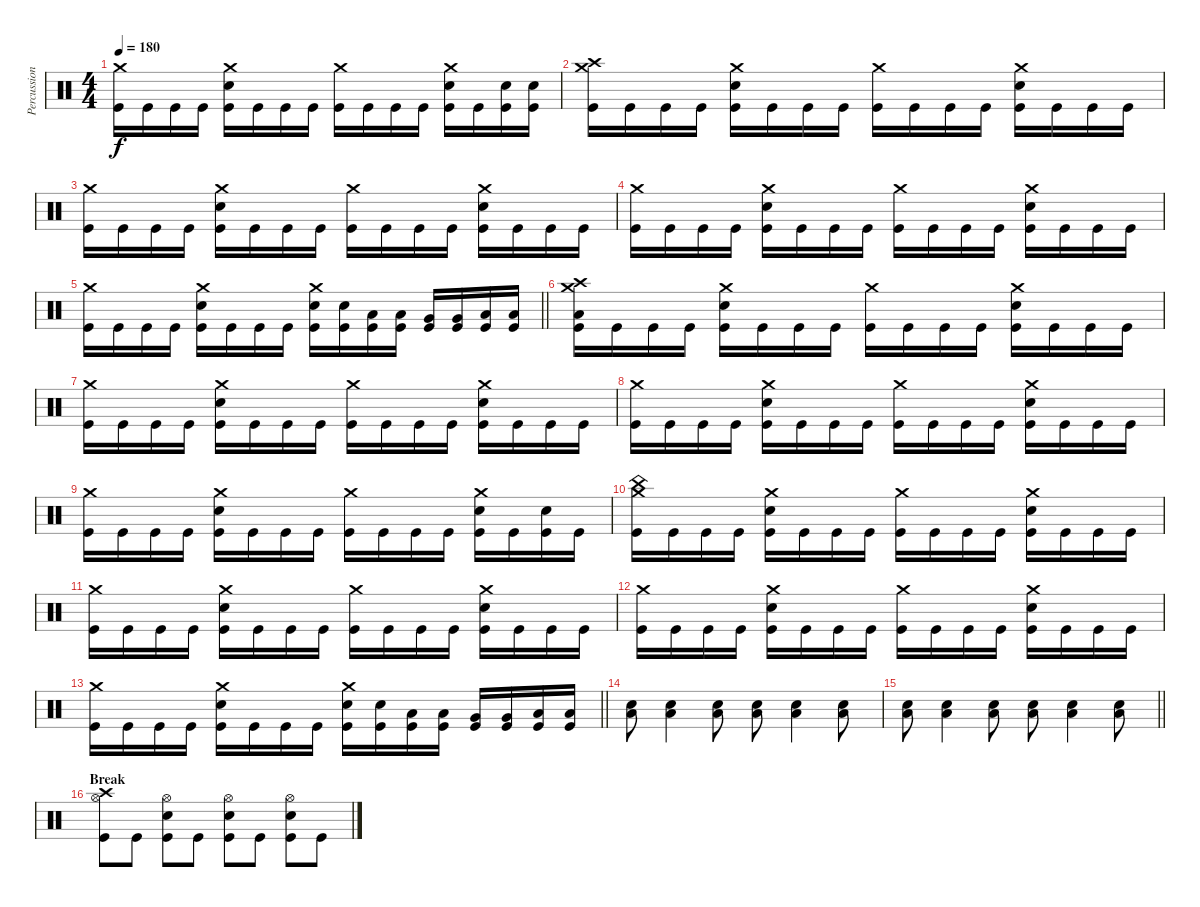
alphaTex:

\track ("Percussion" "Percussion") {instrument percussion}
\staff {score}
\articulation defaults
\ts (4 4)
\tempo 180
\clef neutral
\ks c
("Crash medium (hit)" "Kick (hit)").16{dy f} "Kick (hit)".16 "Kick (hit)".16 "Kick (hit)".16 ("Crash medium (hit)" "Electric Snare (hit)" "Kick (hit)").16 "Kick (hit)".16 "Kick (hit)".16 "Kick (hit)".16 ("Crash medium (hit)" "Kick (hit)").16 "Kick (hit)".16 "Kick (hit)".16 "Kick (hit)".16 ("Crash medium (hit)" "Electric Snare (hit)" "Kick (hit)").16 "Kick (hit)".16 ("Electric Snare (hit)" "Kick (hit)").16 ("Electric Snare (hit)" "Kick (hit)").16 |
("Crash medium (hit)" "Crash high (hit)" "Kick (hit)").16 "Kick (hit)".16 "Kick (hit)".16 "Kick (hit)".16 ("Crash medium (hit)" "Electric Snare (hit)" "Kick (hit)").16 "Kick (hit)".16 "Kick (hit)".16 "Kick (hit)".16 ("Crash medium (hit)" "Kick (hit)").16 "Kick (hit)".16 "Kick (hit)".16 "Kick (hit)".16 ("Crash medium (hit)" "Electric Snare (hit)" "Kick (hit)").16 "Kick (hit)".16 "Kick (hit)".16 "Kick (hit)".16 |
("Crash medium (hit)" "Kick (hit)").16 "Kick (hit)".16 "Kick (hit)".16 "Kick (hit)".16 ("Crash medium (hit)" "Electric Snare (hit)" "Kick (hit)").16 "Kick (hit)".16 "Kick (hit)".16 "Kick (hit)".16 ("Crash medium (hit)" "Kick (hit)").16 "Kick (hit)".16 "Kick (hit)".16 "Kick (hit)".16 ("Crash medium (hit)" "Electric Snare (hit)" "Kick (hit)").16 "Kick (hit)".16 "Kick (hit)".16 "Kick (hit)".16 |
("Crash medium (hit)" "Kick (hit)").16 "Kick (hit)".16 "Kick (hit)".16 "Kick (hit)".16 ("Crash medium (hit)" "Electric Snare (hit)" "Kick (hit)").16 "Kick (hit)".16 "Kick (hit)".16 "Kick (hit)".16 ("Crash medium (hit)" "Kick (hit)").16 "Kick (hit)".16 "Kick (hit)".16 "Kick (hit)".16 ("Crash medium (hit)" "Electric Snare (hit)" "Kick (hit)").16 "Kick (hit)".16 "Kick (hit)".16 "Kick (hit)".16 |
\barLineRight lightlight
("Crash medium (hit)" "Kick (hit)").16 "Kick (hit)".16 "Kick (hit)".16 "Kick (hit)".16 ("Crash medium (hit)" "Electric Snare (hit)" "Kick (hit)").16 "Kick (hit)".16 "Kick (hit)".16 "Kick (hit)".16 ("Crash medium (hit)" "Electric Snare (hit)" "Kick (hit)").16 ("Electric Snare (hit)" "Kick (hit)").16 ("Low Tom (hit)" "Kick (hit)").16 ("Low Tom (hit)" "Kick (hit)").16 ("Very Low Tom (hit)" "Kick (hit)").16 ("Very Low Tom (hit)" "Kick (hit)").16 ("Low Floor Tom (hit)" "Kick (hit)").16 ("Low Floor Tom (hit)" "Kick (hit)").16 |
("Crash medium (hit)" "Crash high (hit)" "Low Floor Tom (hit)" "Kick (hit)").16 "Kick (hit)".16 "Kick (hit)".16 "Kick (hit)".16 ("Crash medium (hit)" "Electric Snare (hit)" "Kick (hit)").16 "Kick (hit)".16 "Kick (hit)".16 "Kick (hit)".16 ("Crash medium (hit)" "Kick (hit)").16 "Kick (hit)".16 "Kick (hit)".16 "Kick (hit)".16 ("Crash medium (hit)" "Electric Snare (hit)" "Kick (hit)").16 "Kick (hit)".16 "Kick (hit)".16 "Kick (hit)".16 |
("Crash medium (hit)" "Kick (hit)").16 "Kick (hit)".16 "Kick (hit)".16 "Kick (hit)".16 ("Crash medium (hit)" "Electric Snare (hit)" "Kick (hit)").16 "Kick (hit)".16 "Kick (hit)".16 "Kick (hit)".16 ("Crash medium (hit)" "Kick (hit)").16 "Kick (hit)".16 "Kick (hit)".16 "Kick (hit)".16 ("Crash medium (hit)" "Electric Snare (hit)" "Kick (hit)").16 "Kick (hit)".16 "Kick (hit)".16 "Kick (hit)".16 |
("Crash medium (hit)" "Kick (hit)").16 "Kick (hit)".16 "Kick (hit)".16 "Kick (hit)".16 ("Crash medium (hit)" "Electric Snare (hit)" "Kick (hit)").16 "Kick (hit)".16 "Kick (hit)".16 "Kick (hit)".16 ("Crash medium (hit)" "Kick (hit)").16 "Kick (hit)".16 "Kick (hit)".16 "Kick (hit)".16 ("Crash medium (hit)" "Electric Snare (hit)" "Kick (hit)").16 "Kick (hit)".16 "Kick (hit)".16 "Kick (hit)".16 |
("Crash medium (hit)" "Kick (hit)").16 "Kick (hit)".16 "Kick (hit)".16 "Kick (hit)".16 ("Crash medium (hit)" "Electric Snare (hit)" "Kick (hit)").16 "Kick (hit)".16 "Kick (hit)".16 "Kick (hit)".16 ("Crash medium (hit)" "Kick (hit)").16 "Kick (hit)".16 "Kick (hit)".16 "Kick (hit)".16 ("Crash medium (hit)" "Electric Snare (hit)" "Kick (hit)").16 "Kick (hit)".16 ("Electric Snare (hit)" "Kick (hit)").16 "Kick (hit)".16 |
("Crash medium (hit)" "China (hit)" "Kick (hit)").16 "Kick (hit)".16 "Kick (hit)".16 "Kick (hit)".16 ("Crash medium (hit)" "Electric Snare (hit)" "Kick (hit)").16 "Kick (hit)".16 "Kick (hit)".16 "Kick (hit)".16 ("Crash medium (hit)" "Kick (hit)").16 "Kick (hit)".16 "Kick (hit)".16 "Kick (hit)".16 ("Crash medium (hit)" "Electric Snare (hit)" "Kick (hit)").16 "Kick (hit)".16 "Kick (hit)".16 "Kick (hit)".16 |
("Crash medium (hit)" "Kick (hit)").16 "Kick (hit)".16 "Kick (hit)".16 "Kick (hit)".16 ("Crash medium (hit)" "Electric Snare (hit)" "Kick (hit)").16 "Kick (hit)".16 "Kick (hit)".16 "Kick (hit)".16 ("Crash medium (hit)" "Kick (hit)").16 "Kick (hit)".16 "Kick (hit)".16 "Kick (hit)".16 ("Crash medium (hit)" "Electric Snare (hit)" "Kick (hit)").16 "Kick (hit)".16 "Kick (hit)".16 "Kick (hit)".16 |
("Crash medium (hit)" "Kick (hit)").16 "Kick (hit)".16 "Kick (hit)".16 "Kick (hit)".16 ("Crash medium (hit)" "Electric Snare (hit)" "Kick (hit)").16 "Kick (hit)".16 "Kick (hit)".16 "Kick (hit)".16 ("Crash medium (hit)" "Kick (hit)").16 "Kick (hit)".16 "Kick (hit)".16 "Kick (hit)".16 ("Crash medium (hit)" "Electric Snare (hit)" "Kick (hit)").16 "Kick (hit)".16 "Kick (hit)".16 "Kick (hit)".16 |
\barLineRight lightlight
("Crash medium (hit)" "Kick (hit)").16 "Kick (hit)".16 "Kick (hit)".16 "Kick (hit)".16 ("Crash medium (hit)" "Electric Snare (hit)" "Kick (hit)").16 "Kick (hit)".16 "Kick (hit)".16 "Kick (hit)".16 ("Crash medium (hit)" "Electric Snare (hit)" "Kick (hit)").16 ("Electric Snare (hit)" "Kick (hit)").16 ("Low Tom (hit)" "Kick (hit)").16 ("Low Tom (hit)" "Kick (hit)").16 ("Very Low Tom (hit)" "Kick (hit)").16 ("Very Low Tom (hit)" "Kick (hit)").16 ("Low Floor Tom (hit)" "Kick (hit)").16 ("Low Floor Tom (hit)" "Kick (hit)").16 |
("Electric Snare (hit)" "Low Floor Tom (hit)").8 ("Electric Snare (hit)" "Low Floor Tom (hit)").4 ("Electric Snare (hit)" "Low Floor Tom (hit)").8 ("Electric Snare (hit)" "Low Floor Tom (hit)").8 ("Electric Snare (hit)" "Low Floor Tom (hit)").4 ("Electric Snare (hit)" "Low Floor Tom (hit)").8 |
\barLineRight lightlight
("Electric Snare (hit)" "Low Floor Tom (hit)").8 ("Electric Snare (hit)" "Low Floor Tom (hit)").4 ("Electric Snare (hit)" "Low Floor Tom (hit)").8 ("Electric Snare (hit)" "Low Floor Tom (hit)").8 ("Electric Snare (hit)" "Low Floor Tom (hit)").4 ("Electric Snare (hit)" "Low Floor Tom (hit)").8 |
\section ("" "Break")
("Crash high (hit)" "Hi-Hat (open)" "Kick (hit)").8 "Kick (hit)".8 ("Hi-Hat (open)" "Electric Snare (hit)" "Kick (hit)").8 "Kick (hit)".8 ("Hi-Hat (open)" "Electric Snare (hit)" "Kick (hit)").8 "Kick (hit)".8 ("Hi-Hat (open)" "Electric Snare (hit)" "Kick (hit)").8 "Kick (hit)".8
